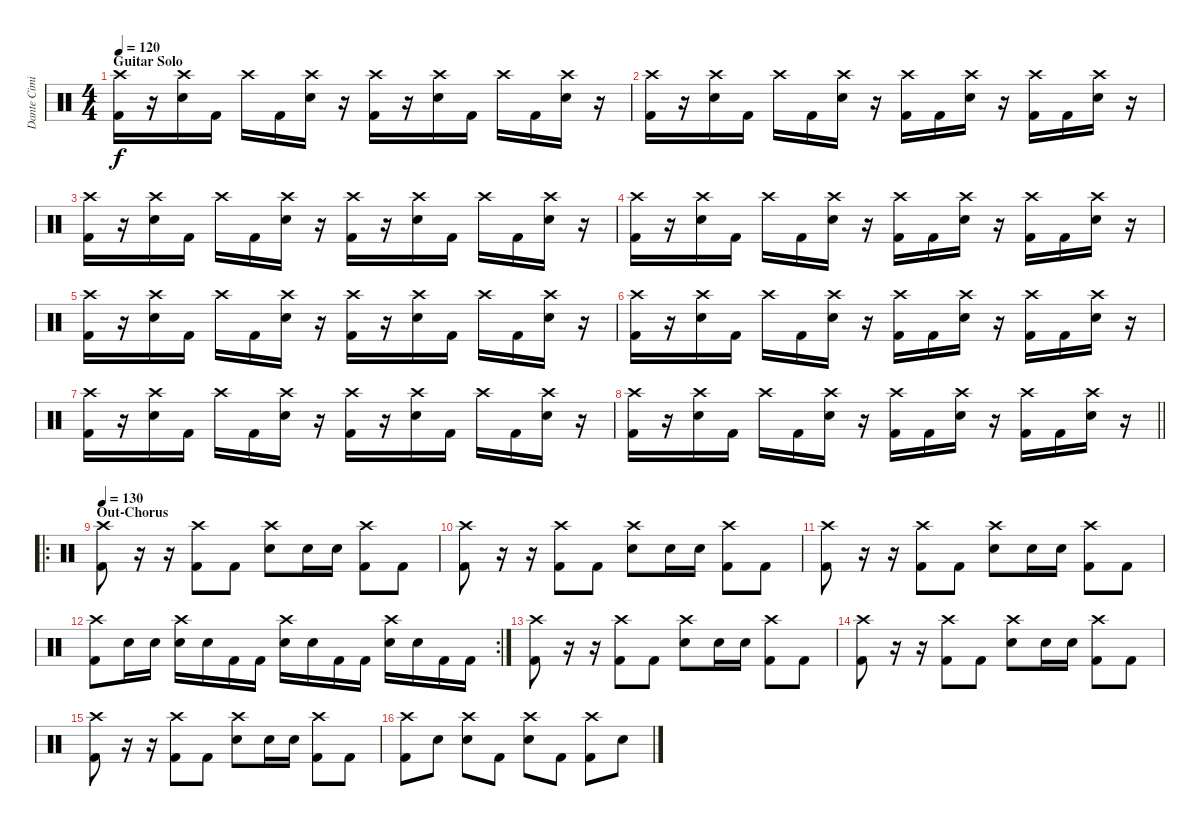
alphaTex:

\track ("Dante Cimino" "Dante Cimi") {instrument percussion}
\staff {score}
\articulation defaults
\ts (4 4)
\section ("" "Guitar Solo")
\tempo 120
\clef neutral
\ks c
("Crash high (hit)" "Kick (hit) 2").16{dy f} r.16 ("Crash high (hit)" "Electric Snare (hit)").16 "Kick (hit) 2".16 "Crash high (hit)".16 "Kick (hit) 2".16 ("Crash high (hit)" "Electric Snare (hit)").16 r.16 ("Crash high (hit)" "Kick (hit) 2").16 r.16 ("Crash high (hit)" "Electric Snare (hit)").16 "Kick (hit) 2".16 "Crash high (hit)".16 "Kick (hit) 2".16 ("Crash high (hit)" "Electric Snare (hit)").16 r.16 |
("Crash high (hit)" "Kick (hit) 2").16 r.16 ("Crash high (hit)" "Electric Snare (hit)").16 "Kick (hit) 2".16 "Crash high (hit)".16 "Kick (hit) 2".16 ("Crash high (hit)" "Electric Snare (hit)").16 r.16 ("Crash high (hit)" "Kick (hit) 2").16 "Kick (hit) 2".16 ("Crash high (hit)" "Electric Snare (hit)").16 r.16 ("Crash high (hit)" "Kick (hit) 2").16 "Kick (hit) 2".16 ("Crash high (hit)" "Electric Snare (hit)").16 r.16 |
("Crash high (hit)" "Kick (hit) 2").16 r.16 ("Crash high (hit)" "Electric Snare (hit)").16 "Kick (hit) 2".16 "Crash high (hit)".16 "Kick (hit) 2".16 ("Crash high (hit)" "Electric Snare (hit)").16 r.16 ("Crash high (hit)" "Kick (hit) 2").16 r.16 ("Crash high (hit)" "Electric Snare (hit)").16 "Kick (hit) 2".16 "Crash high (hit)".16 "Kick (hit) 2".16 ("Crash high (hit)" "Electric Snare (hit)").16 r.16 |
("Crash high (hit)" "Kick (hit) 2").16 r.16 ("Crash high (hit)" "Electric Snare (hit)").16 "Kick (hit) 2".16 "Crash high (hit)".16 "Kick (hit) 2".16 ("Crash high (hit)" "Electric Snare (hit)").16 r.16 ("Crash high (hit)" "Kick (hit) 2").16 "Kick (hit) 2".16 ("Crash high (hit)" "Electric Snare (hit)").16 r.16 ("Crash high (hit)" "Kick (hit) 2").16 "Kick (hit) 2".16 ("Crash high (hit)" "Electric Snare (hit)").16 r.16 |
("Crash high (hit)" "Kick (hit) 2").16 r.16 ("Crash high (hit)" "Electric Snare (hit)").16 "Kick (hit) 2".16 "Crash high (hit)".16 "Kick (hit) 2".16 ("Crash high (hit)" "Electric Snare (hit)").16 r.16 ("Crash high (hit)" "Kick (hit) 2").16 r.16 ("Crash high (hit)" "Electric Snare (hit)").16 "Kick (hit) 2".16 "Crash high (hit)".16 "Kick (hit) 2".16 ("Crash high (hit)" "Electric Snare (hit)").16 r.16 |
("Crash high (hit)" "Kick (hit) 2").16 r.16 ("Crash high (hit)" "Electric Snare (hit)").16 "Kick (hit) 2".16 "Crash high (hit)".16 "Kick (hit) 2".16 ("Crash high (hit)" "Electric Snare (hit)").16 r.16 ("Crash high (hit)" "Kick (hit) 2").16 "Kick (hit) 2".16 ("Crash high (hit)" "Electric Snare (hit)").16 r.16 ("Crash high (hit)" "Kick (hit) 2").16 "Kick (hit) 2".16 ("Crash high (hit)" "Electric Snare (hit)").16 r.16 |
("Crash high (hit)" "Kick (hit) 2").16 r.16 ("Crash high (hit)" "Electric Snare (hit)").16 "Kick (hit) 2".16 "Crash high (hit)".16 "Kick (hit) 2".16 ("Crash high (hit)" "Electric Snare (hit)").16 r.16 ("Crash high (hit)" "Kick (hit) 2").16 r.16 ("Crash high (hit)" "Electric Snare (hit)").16 "Kick (hit) 2".16 "Crash high (hit)".16 "Kick (hit) 2".16 ("Crash high (hit)" "Electric Snare (hit)").16 r.16 |
\barLineRight lightlight
("Crash high (hit)" "Kick (hit) 2").16 r.16 ("Crash high (hit)" "Electric Snare (hit)").16 "Kick (hit) 2".16 "Crash high (hit)".16 "Kick (hit) 2".16 ("Crash high (hit)" "Electric Snare (hit)").16 r.16 ("Crash high (hit)" "Kick (hit) 2").16 "Kick (hit) 2".16 ("Crash high (hit)" "Electric Snare (hit)").16 r.16 ("Crash high (hit)" "Kick (hit) 2").16 "Kick (hit) 2".16 ("Crash high (hit)" "Electric Snare (hit)").16 r.16 |
\ro
\section ("" "Out-Chorus")
\tempo 130
("Crash high (hit)" "Kick (hit) 2").8 r.16 r.16 ("Crash high (hit)" "Kick (hit) 2").8 "Kick (hit) 2".8 ("Crash high (hit)" "Electric Snare (hit)").8 "Electric Snare (hit)".16 "Electric Snare (hit)".16 ("Crash high (hit)" "Kick (hit) 2").8 "Kick (hit) 2".8 |
("Crash high (hit)" "Kick (hit) 2").8 r.16 r.16 ("Crash high (hit)" "Kick (hit) 2").8 "Kick (hit) 2".8 ("Crash high (hit)" "Electric Snare (hit)").8 "Electric Snare (hit)".16 "Electric Snare (hit)".16 ("Crash high (hit)" "Kick (hit) 2").8 "Kick (hit) 2".8 |
("Crash high (hit)" "Kick (hit) 2").8 r.16 r.16 ("Crash high (hit)" "Kick (hit) 2").8 "Kick (hit) 2".8 ("Crash high (hit)" "Electric Snare (hit)").8 "Electric Snare (hit)".16 "Electric Snare (hit)".16 ("Crash high (hit)" "Kick (hit) 2").8 "Kick (hit) 2".8 |
\rc 2
("Crash high (hit)" "Kick (hit) 2").8 "Electric Snare (hit)".16 "Electric Snare (hit)".16 ("Crash high (hit)" "Electric Snare (hit)").16 "Electric Snare (hit)".16 "Kick (hit) 2".16 "Kick (hit) 2".16 ("Crash high (hit)" "Electric Snare (hit)").16 "Electric Snare (hit)".16 "Kick (hit) 2".16 "Kick (hit) 2".16 ("Crash high (hit)" "Electric Snare (hit)").16 "Electric Snare (hit)".16 "Kick (hit) 2".16 "Kick (hit) 2".16 |
("Crash high (hit)" "Kick (hit) 2").8 r.16 r.16 ("Crash high (hit)" "Kick (hit) 2").8 "Kick (hit) 2".8 ("Crash high (hit)" "Electric Snare (hit)").8 "Electric Snare (hit)".16 "Electric Snare (hit)".16 ("Crash high (hit)" "Kick (hit) 2").8 "Kick (hit) 2".8 |
("Crash high (hit)" "Kick (hit) 2").8 r.16 r.16 ("Crash high (hit)" "Kick (hit) 2").8 "Kick (hit) 2".8 ("Crash high (hit)" "Electric Snare (hit)").8 "Electric Snare (hit)".16 "Electric Snare (hit)".16 ("Crash high (hit)" "Kick (hit) 2").8 "Kick (hit) 2".8 |
("Crash high (hit)" "Kick (hit) 2").8 r.16 r.16 ("Crash high (hit)" "Kick (hit) 2").8 "Kick (hit) 2".8 ("Crash high (hit)" "Electric Snare (hit)").8 "Electric Snare (hit)".16 "Electric Snare (hit)".16 ("Crash high (hit)" "Kick (hit) 2").8 "Kick (hit) 2".8 |
("Crash high (hit)" "Kick (hit) 2").8 "Electric Snare (hit)".8 ("Crash high (hit)" "Electric Snare (hit)").8 "Kick (hit) 2".8 ("Crash high (hit)" "Electric Snare (hit)").8 "Kick (hit) 2".8 ("Crash high (hit)" "Kick (hit) 2").8 "Electric Snare (hit)".8
